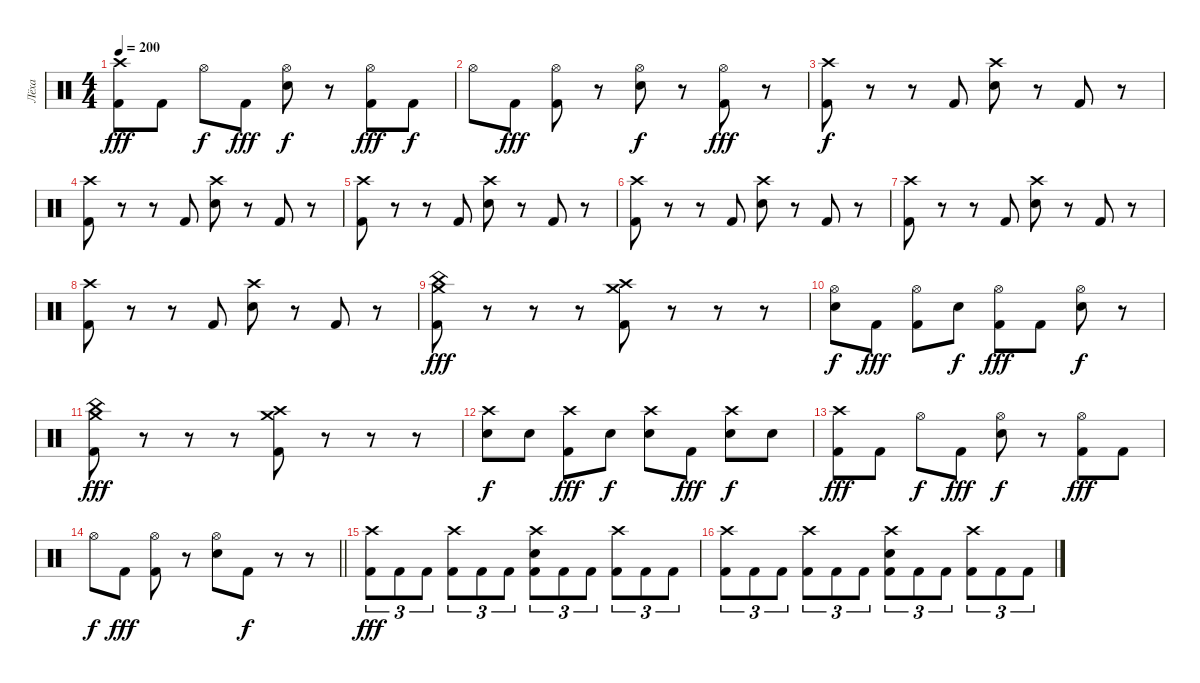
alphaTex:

\track ("Лёха" "Лёха") {instrument percussion}
\staff {score}
\articulation defaults
\ts (4 4)
\tempo 200
\clef neutral
\ks c
("Crash high (hit)" "Kick (hit) 2").8{dy fff} "Kick (hit) 2".8 "Hi-Hat (open)".8{dy f} "Kick (hit) 2".8{dy fff} ("Hi-Hat (open)" "Electric Snare (hit)").8{dy f} r.8 ("Hi-Hat (open)" "Kick (hit) 2").8{dy fff} "Kick (hit) 2".8{dy f} |
"Hi-Hat (open)".8 "Kick (hit) 2".8{dy fff} ("Hi-Hat (open)" "Kick (hit) 2").8 r.8 ("Hi-Hat (open)" "Electric Snare (hit)").8{dy f} r.8 ("Hi-Hat (open)" "Kick (hit) 2").8{dy fff} r.8 |
("Crash high (hit)" "Kick (hit) 2").8{dy f} r.8 r.8 "Kick (hit) 2".8 ("Crash high (hit)" "Electric Snare (hit)").8 r.8 "Kick (hit) 2".8 r.8 |
("Crash high (hit)" "Kick (hit) 2").8 r.8 r.8 "Kick (hit) 2".8 ("Crash high (hit)" "Electric Snare (hit)").8 r.8 "Kick (hit) 2".8 r.8 |
("Crash high (hit)" "Kick (hit) 2").8 r.8 r.8 "Kick (hit) 2".8 ("Crash high (hit)" "Electric Snare (hit)").8 r.8 "Kick (hit) 2".8 r.8 |
("Crash high (hit)" "Kick (hit) 2").8 r.8 r.8 "Kick (hit) 2".8 ("Crash high (hit)" "Electric Snare (hit)").8 r.8 "Kick (hit) 2".8 r.8 |
("Crash high (hit)" "Kick (hit) 2").8 r.8 r.8 "Kick (hit) 2".8 ("Crash high (hit)" "Electric Snare (hit)").8 r.8 "Kick (hit) 2".8 r.8 |
("Crash high (hit)" "Kick (hit) 2").8 r.8 r.8 "Kick (hit) 2".8 ("Crash high (hit)" "Electric Snare (hit)").8 r.8 "Kick (hit) 2".8 r.8 |
("Crash medium (hit)" "China (hit)" "Kick (hit) 2").8{dy fff} r.8 r.8 r.8 ("Crash high (hit)" "Crash medium (hit)" "Kick (hit) 2").8 r.8 r.8 r.8 |
("Hi-Hat (open)" "Electric Snare (hit)").8{dy f} "Kick (hit) 2".8{dy fff} ("Hi-Hat (open)" "Kick (hit) 2").8 "Electric Snare (hit)".8{dy f} ("Hi-Hat (open)" "Kick (hit) 2").8{dy fff} "Kick (hit) 2".8 ("Hi-Hat (open)" "Electric Snare (hit)").8{dy f} r.8 |
("Crash medium (hit)" "China (hit)" "Kick (hit) 2").8{dy fff} r.8 r.8 r.8 ("Crash high (hit)" "Crash medium (hit)" "Kick (hit) 2").8 r.8 r.8 r.8 |
("Crash high (hit)" "Electric Snare (hit)").8{dy f} "Electric Snare (hit)".8 ("Crash high (hit)" "Kick (hit) 2").8{dy fff} "Electric Snare (hit)".8{dy f} ("Crash high (hit)" "Electric Snare (hit)").8 "Kick (hit) 2".8{dy fff} ("Crash high (hit)" "Electric Snare (hit)").8{dy f} "Electric Snare (hit)".8 |
("Crash high (hit)" "Kick (hit) 2").8{dy fff} "Kick (hit) 2".8 "Hi-Hat (open)".8{dy f} "Kick (hit) 2".8{dy fff} ("Hi-Hat (open)" "Electric Snare (hit)").8{dy f} r.8 ("Hi-Hat (open)" "Kick (hit) 2").8{dy fff} "Kick (hit) 2".8 |
\barLineRight lightlight "Hi-Hat (open)".8{dy f} "Kick (hit) 2".8{dy fff}
("Hi-Hat (open)" "Kick (hit) 2").8 r.8 ("Hi-Hat (open)" "Electric Snare (hit)").8 "Kick (hit) 2".8{dy f} r.8{volume 0} r.8 |
\section ("" "")
("Crash high (hit)" "Kick (hit) 2").8{tu (3 2) dy fff volume 12} "Kick (hit) 2".8{tu (3 2)} "Kick (hit) 2".8{tu (3 2)} ("Crash high (hit)" "Kick (hit) 2").8{tu (3 2)} "Kick (hit) 2".8{tu (3 2)} "Kick (hit) 2".8{tu (3 2)} ("Crash high (hit)" "Electric Snare (hit)" "Kick (hit) 2").8{tu (3 2)} "Kick (hit) 2".8{tu (3 2)} "Kick (hit) 2".8{tu (3 2)} ("Crash high (hit)" "Kick (hit) 2").8{tu (3 2)} "Kick (hit) 2".8{tu (3 2)} "Kick (hit) 2".8{tu (3 2)} |
("Crash high (hit)" "Kick (hit) 2").8{tu (3 2)} "Kick (hit) 2".8{tu (3 2)} "Kick (hit) 2".8{tu (3 2)} ("Crash high (hit)" "Kick (hit) 2").8{tu (3 2)} "Kick (hit) 2".8{tu (3 2)} "Kick (hit) 2".8{tu (3 2)} ("Crash high (hit)" "Electric Snare (hit)" "Kick (hit) 2").8{tu (3 2)} "Kick (hit) 2".8{tu (3 2)} "Kick (hit) 2".8{tu (3 2)} ("Crash high (hit)" "Kick (hit) 2").8{tu (3 2)} "Kick (hit) 2".8{tu (3 2)} "Kick (hit) 2".8{tu (3 2)}
